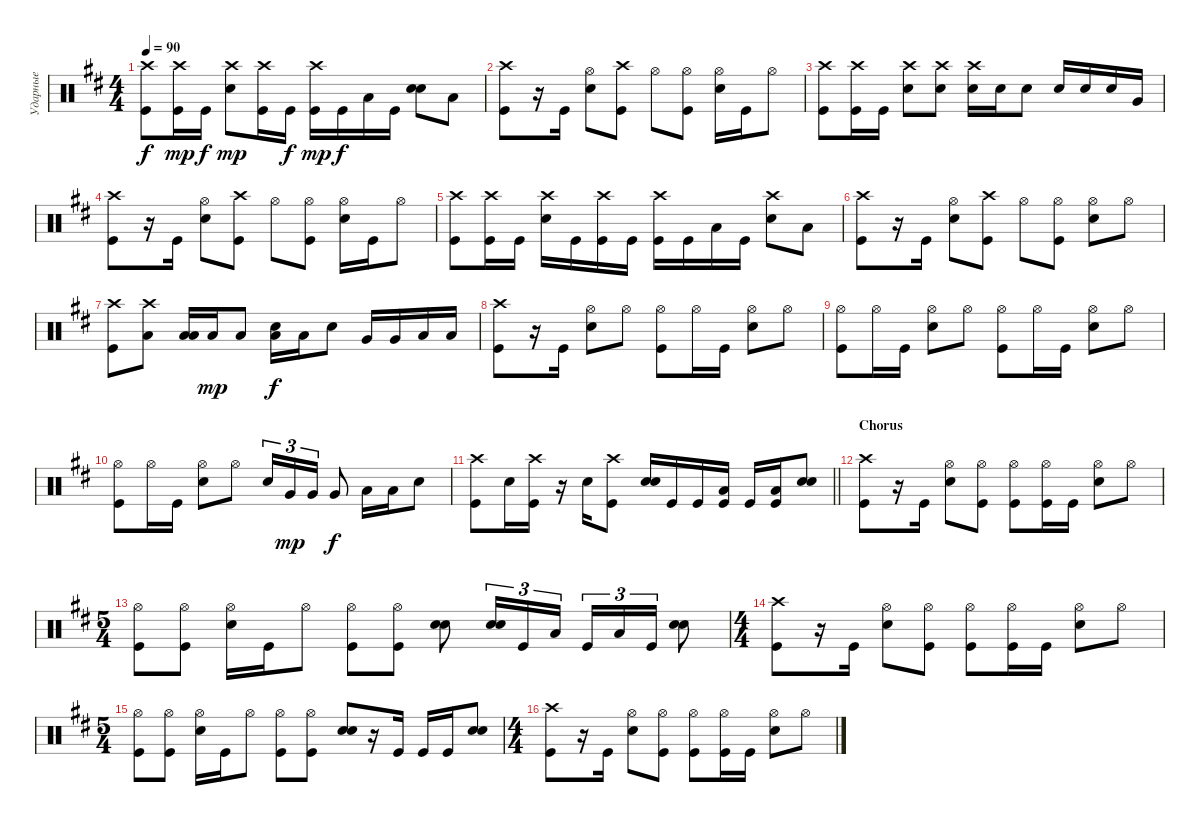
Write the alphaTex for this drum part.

\track ("Ударные" "Ударные") {instrument percussion}
\staff {score}
\articulation defaults
\ts (4 4)
\tempo 90
\clef neutral
\ks bminor
("Kick (hit)" "Crash high (hit)").8{dy f} ("Kick (hit)" "Crash high (hit)").16{dy mp} "Kick (hit)".16{dy f} ("Snare (hit) 2" "Crash high (hit)").8{dy mp} ("Kick (hit)" "Crash high (hit)").16 "Kick (hit)".16{dy f} ("Kick (hit)" "Crash high (hit)").16{dy mp} "Kick (hit)".16{dy f} "Low Floor Tom (hit)".16 "Kick (hit)".16 ("Snare (hit) 2" "Snare (hit) 2").8{bd 240} "Low Floor Tom (hit)".8 |
("Kick (hit)" "Crash high (hit)").8 r.16 "Kick (hit)".16 ("Snare (hit) 2" "Hi-Hat (open)").8 ("Kick (hit)" "Crash high (hit)").8 "Hi-Hat (open)".8 ("Hi-Hat (open)" "Kick (hit)").8 ("Hi-Hat (open)" "Snare (hit) 2").16 "Kick (hit)".16 "Hi-Hat (open)".8 |
("Kick (hit)" "Crash high (hit)").8 ("Kick (hit)" "Crash high (hit)").16 "Kick (hit)".16 ("Snare (hit) 2" "Crash high (hit)").8 ("Snare (hit) 2" "Crash high (hit)").8 ("Snare (hit) 2" "Crash high (hit)").16 "Snare (hit) 2".16 "Snare (hit) 2".8 "Snare (hit) 2".16 "Snare (hit) 2".16 "Snare (hit) 2".16 "Very Low Tom (hit)".16 |
("Kick (hit)" "Crash high (hit)").8 r.16 "Kick (hit)".16 ("Snare (hit) 2" "Hi-Hat (open)").8 ("Kick (hit)" "Crash high (hit)").8 "Hi-Hat (open)".8 ("Hi-Hat (open)" "Kick (hit)").8 ("Hi-Hat (open)" "Snare (hit) 2").16 "Kick (hit)".16 "Hi-Hat (open)".8 |
("Kick (hit)" "Crash high (hit)").8 ("Kick (hit)" "Crash high (hit)").16 "Kick (hit)".16 ("Snare (hit) 2" "Crash high (hit)").16 "Kick (hit)".16 ("Kick (hit)" "Crash high (hit)").16 "Kick (hit)".16 ("Kick (hit)" "Crash high (hit)").16 "Kick (hit)".16 "Low Floor Tom (hit)".16 "Kick (hit)".16 ("Crash high (hit)" "Snare (hit) 2").8{bd 240} "Low Floor Tom (hit)".8 |
("Kick (hit)" "Crash high (hit)").8 r.16 "Kick (hit)".16 ("Snare (hit) 2" "Hi-Hat (open)").8 ("Kick (hit)" "Crash high (hit)").8 "Hi-Hat (open)".8 ("Hi-Hat (open)" "Kick (hit)").8 ("Hi-Hat (open)" "Snare (hit) 2").8 "Hi-Hat (open)".8 |
("Kick (hit)" "Crash high (hit)").8 ("Low Tom (hit)" "Crash high (hit)").8 ("Low Tom (hit)" "Low Tom (hit)").16{bd 240} "Low Tom (hit)".16{dy mp} "Low Tom (hit)".8 ("Snare (hit) 2" "Low Tom (hit)").16{bd 240 dy f} "Low Tom (hit)".16 "Snare (hit) 2".8 "Very Low Tom (hit)".16 "Very Low Tom (hit)".16 "Low Floor Tom (hit)".16 "Low Floor Tom (hit)".16 |
("Kick (hit)" "Crash high (hit)").8 r.16 "Kick (hit)".16 ("Hi-Hat (open)" "Snare (hit) 2").8 "Hi-Hat (open)".8 ("Kick (hit)" "Hi-Hat (open)").8 "Hi-Hat (open)".16 "Kick (hit)".16 ("Hi-Hat (open)" "Snare (hit) 2").8 "Hi-Hat (open)".8 |
("Kick (hit)" "Hi-Hat (open)").8 "Hi-Hat (open)".16 "Kick (hit)".16 ("Hi-Hat (open)" "Snare (hit) 2").8 "Hi-Hat (open)".8 ("Kick (hit)" "Hi-Hat (open)").8 "Hi-Hat (open)".16 "Kick (hit)".16 ("Hi-Hat (open)" "Snare (hit) 2").8 "Hi-Hat (open)".8 |
("Kick (hit)" "Hi-Hat (open)").8 "Hi-Hat (open)".16 "Kick (hit)".16 ("Hi-Hat (open)" "Snare (hit) 2").8 "Hi-Hat (open)".8 "Snare (hit) 2".16{tu (3 2)} "Very Low Tom (hit)".16{tu (3 2) dy mp} "Very Low Tom (hit)".16{tu (3 2)} "Very Low Tom (hit)".8{dy f} "Low Floor Tom (hit)".16 "Low Floor Tom (hit)".16 "Snare (hit) 2".8 |
\barLineRight lightlight
("Kick (hit)" "Crash high (hit)").8 "Snare (hit) 2".16 ("Kick (hit)" "Crash high (hit)").16 r.16 "Snare (hit) 2".16 ("Kick (hit)" "Crash high (hit)").8 ("Snare (hit) 2" "Snare (hit) 2").16{bd 240} "Kick (hit)".16 "Kick (hit)".16 ("Kick (hit)" "Low Floor Tom (hit)").16 "Kick (hit)".16 ("Kick (hit)" "Low Floor Tom (hit)").16 ("Snare (hit) 2" "Snare (hit) 2").8{bd 240} |
\section ("" "Chorus")
("Kick (hit)" "Crash high (hit)").8 r.16 "Kick (hit)".16 ("Snare (hit) 2" "Hi-Hat (open)").8 ("Kick (hit)" "Hi-Hat (open)").8 ("Kick (hit)" "Hi-Hat (open)").8 ("Kick (hit)" "Hi-Hat (open)").16 "Kick (hit)".16 ("Snare (hit) 2" "Hi-Hat (open)").8 "Hi-Hat (open)".8 |
\ts (5 4)
("Kick (hit)" "Hi-Hat (open)").8 ("Kick (hit)" "Hi-Hat (open)").8 ("Snare (hit) 2" "Hi-Hat (open)").16 "Kick (hit)".16 "Hi-Hat (open)".8 ("Kick (hit)" "Hi-Hat (open)").8 ("Kick (hit)" "Hi-Hat (open)").8 ("Snare (hit) 2" "Snare (hit) 2").8{bd 240} ("Snare (hit) 2" "Snare (hit) 2").16{tu (3 2) bd 240} "Kick (hit)".16{tu (3 2)} "Low Floor Tom (hit)".16{tu (3 2)} "Kick (hit)".16{tu (3 2)} "Low Floor Tom (hit)".16{tu (3 2)} "Kick (hit)".16{tu (3 2)} ("Snare (hit) 2" "Snare (hit) 2").8{bd 240} |
\ts (4 4)
("Kick (hit)" "Crash high (hit)").8 r.16 "Kick (hit)".16 ("Snare (hit) 2" "Hi-Hat (open)").8 ("Kick (hit)" "Hi-Hat (open)").8 ("Kick (hit)" "Hi-Hat (open)").8 ("Kick (hit)" "Hi-Hat (open)").16 "Kick (hit)".16 ("Snare (hit) 2" "Hi-Hat (open)").8 "Hi-Hat (open)".8 |
\ts (5 4)
("Kick (hit)" "Hi-Hat (open)").8 ("Kick (hit)" "Hi-Hat (open)").8 ("Snare (hit) 2" "Hi-Hat (open)").16 "Kick (hit)".16 "Hi-Hat (open)".8 ("Kick (hit)" "Hi-Hat (open)").8 ("Kick (hit)" "Hi-Hat (open)").8 ("Snare (hit) 2" "Snare (hit) 2").8{bd 240} r.16 "Kick (hit)".16 "Kick (hit)".16 "Kick (hit)".16 ("Snare (hit) 2" "Snare (hit) 2").8{bd 240} |
\ts (4 4)
("Kick (hit)" "Crash high (hit)").8 r.16 "Kick (hit)".16 ("Snare (hit) 2" "Hi-Hat (open)").8 ("Kick (hit)" "Hi-Hat (open)").8 ("Kick (hit)" "Hi-Hat (open)").8 ("Kick (hit)" "Hi-Hat (open)").16 "Kick (hit)".16 ("Snare (hit) 2" "Hi-Hat (open)").8 "Hi-Hat (open)".8
